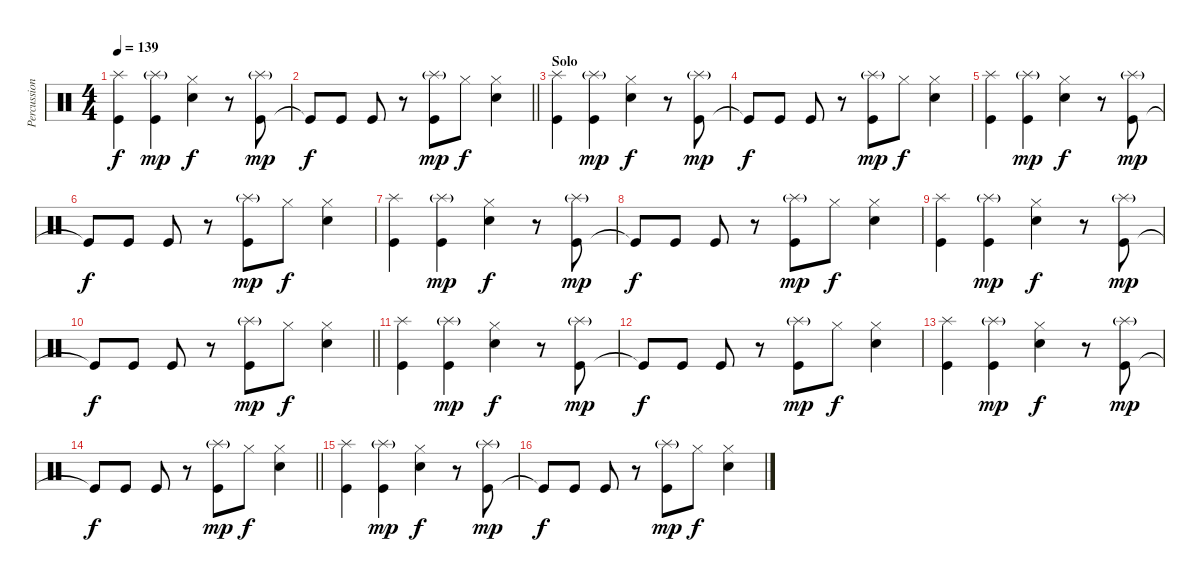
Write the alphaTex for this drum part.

\track ("Percussion" "Percussion") {instrument percussion}
\staff {score}
\articulation defaults
\ts (4 4)
\tempo 139
\clef neutral
\ks c
("Kick (hit)" "Splash (hit)").4{dy f} ("Kick (hit)" "Splash (hit)"{g}).4{dy mp} ("Snare (hit) 2" "Hi-Hat (closed)").4{dy f} r.8 ("Kick (hit)" "Splash (hit)"{g}).8{dy mp} |
\barLineRight lightlight "Kick (hit)"{t}.8{dy f} "Kick (hit)".8 "Kick (hit)".8
r.8 ("Kick (hit)" "Splash (hit)"{g}).8{dy mp} "Hi-Hat (closed)".8{dy f} ("Snare (hit) 2" "Hi-Hat (closed)").4 |
\section ("" "Solo")
("Kick (hit)" "Splash (hit)").4 ("Kick (hit)" "Splash (hit)"{g}).4{dy mp} ("Snare (hit) 2" "Hi-Hat (closed)").4{dy f} r.8 ("Kick (hit)" "Splash (hit)"{g}).8{dy mp} |
"Kick (hit)"{t}.8{dy f} "Kick (hit)".8 "Kick (hit)".8 r.8 ("Kick (hit)" "Splash (hit)"{g}).8{dy mp} "Hi-Hat (closed)".8{dy f} ("Snare (hit) 2" "Hi-Hat (closed)").4 |
("Kick (hit)" "Splash (hit)").4 ("Kick (hit)" "Splash (hit)"{g}).4{dy mp} ("Snare (hit) 2" "Hi-Hat (closed)").4{dy f} r.8 ("Kick (hit)" "Splash (hit)"{g}).8{dy mp} |
"Kick (hit)"{t}.8{dy f} "Kick (hit)".8 "Kick (hit)".8 r.8 ("Kick (hit)" "Splash (hit)"{g}).8{dy mp} "Hi-Hat (closed)".8{dy f} ("Snare (hit) 2" "Hi-Hat (closed)").4 |
("Kick (hit)" "Splash (hit)").4 ("Kick (hit)" "Splash (hit)"{g}).4{dy mp} ("Snare (hit) 2" "Hi-Hat (closed)").4{dy f} r.8 ("Kick (hit)" "Splash (hit)"{g}).8{dy mp} |
"Kick (hit)"{t}.8{dy f} "Kick (hit)".8 "Kick (hit)".8 r.8 ("Kick (hit)" "Splash (hit)"{g}).8{dy mp} "Hi-Hat (closed)".8{dy f} ("Snare (hit) 2" "Hi-Hat (closed)").4 |
("Kick (hit)" "Splash (hit)").4 ("Kick (hit)" "Splash (hit)"{g}).4{dy mp} ("Snare (hit) 2" "Hi-Hat (closed)").4{dy f} r.8 ("Kick (hit)" "Splash (hit)"{g}).8{dy mp} |
\barLineRight lightlight "Kick (hit)"{t}.8{dy f} "Kick (hit)".8 "Kick (hit)".8
r.8 ("Kick (hit)" "Splash (hit)"{g}).8{dy mp} "Hi-Hat (closed)".8{dy f} ("Snare (hit) 2" "Hi-Hat (closed)").4 |
("Kick (hit)" "Splash (hit)").4 ("Kick (hit)" "Splash (hit)"{g}).4{dy mp} ("Snare (hit) 2" "Hi-Hat (closed)").4{dy f} r.8 ("Kick (hit)" "Splash (hit)"{g}).8{dy mp} |
"Kick (hit)"{t}.8{dy f} "Kick (hit)".8 "Kick (hit)".8 r.8 ("Kick (hit)" "Splash (hit)"{g}).8{dy mp} "Hi-Hat (closed)".8{dy f} ("Snare (hit) 2" "Hi-Hat (closed)").4 |
("Kick (hit)" "Splash (hit)").4 ("Kick (hit)" "Splash (hit)"{g}).4{dy mp} ("Snare (hit) 2" "Hi-Hat (closed)").4{dy f} r.8 ("Kick (hit)" "Splash (hit)"{g}).8{dy mp} |
\barLineRight lightlight "Kick (hit)"{t}.8{dy f} "Kick (hit)".8 "Kick (hit)".8
r.8 ("Kick (hit)" "Splash (hit)"{g}).8{dy mp} "Hi-Hat (closed)".8{dy f} ("Snare (hit) 2" "Hi-Hat (closed)").4 |
("Kick (hit)" "Splash (hit)").4 ("Kick (hit)" "Splash (hit)"{g}).4{dy mp} ("Snare (hit) 2" "Hi-Hat (closed)").4{dy f} r.8 ("Kick (hit)" "Splash (hit)"{g}).8{dy mp} |
"Kick (hit)"{t}.8{dy f} "Kick (hit)".8 "Kick (hit)".8 r.8 ("Kick (hit)" "Splash (hit)"{g}).8{dy mp} "Hi-Hat (closed)".8{dy f} ("Snare (hit) 2" "Hi-Hat (closed)").4
